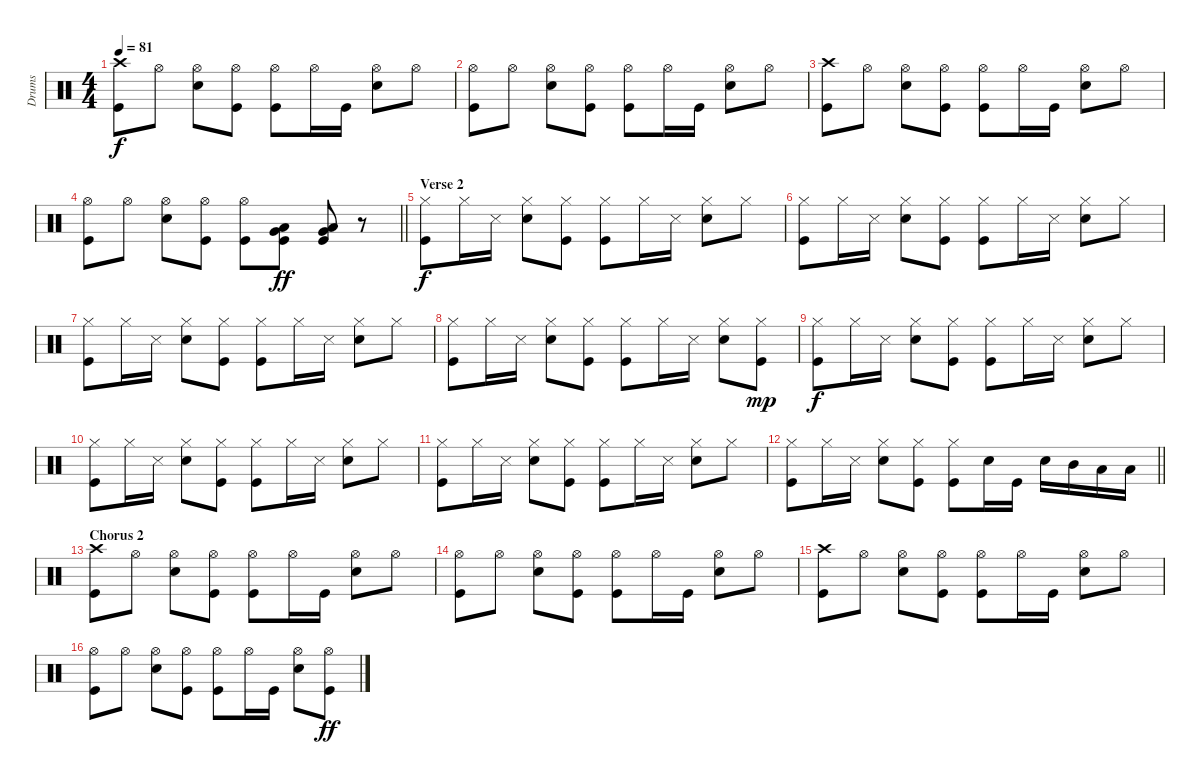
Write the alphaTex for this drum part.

\track ("Drums" "Drums") {instrument percussion}
\staff {score}
\articulation defaults
\ts (4 4)
\tempo 81
\clef neutral
\ks c
("Crash high (hit)" "Kick (hit)").8{dy f} "Hi-Hat (open)".8 ("Hi-Hat (open)" "Snare (hit) 2").8 ("Hi-Hat (open)" "Kick (hit)").8 ("Hi-Hat (open)" "Kick (hit)").8 "Hi-Hat (open)".16 "Kick (hit)".16 ("Hi-Hat (open)" "Snare (hit) 2").8 "Hi-Hat (open)".8 |
("Hi-Hat (open)" "Kick (hit)").8 "Hi-Hat (open)".8 ("Hi-Hat (open)" "Snare (hit) 2").8 ("Hi-Hat (open)" "Kick (hit)").8 ("Hi-Hat (open)" "Kick (hit)").8 "Hi-Hat (open)".16 "Kick (hit)".16 ("Hi-Hat (open)" "Snare (hit) 2").8 "Hi-Hat (open)".8 |
("Crash high (hit)" "Kick (hit)").8 "Hi-Hat (open)".8 ("Hi-Hat (open)" "Snare (hit) 2").8 ("Hi-Hat (open)" "Kick (hit)").8 ("Hi-Hat (open)" "Kick (hit)").8 "Hi-Hat (open)".16 "Kick (hit)".16 ("Hi-Hat (open)" "Snare (hit) 2").8 "Hi-Hat (open)".8 |
\barLineRight lightlight
("Hi-Hat (open)" "Kick (hit)").8 "Hi-Hat (open)".8 ("Hi-Hat (open)" "Snare (hit) 2").8 ("Hi-Hat (open)" "Kick (hit)").8 ("Hi-Hat (open)" "Kick (hit)").8 ("Low Tom (hit)" "Very Low Tom (hit)" "Kick (hit)").8{dy ff} ("Low Tom (hit)" "Very Low Tom (hit)" "Kick (hit)").8 r.8 |
\section ("" "Verse 2")
("Hi-Hat (closed)" "Kick (hit)").8{dy f} "Hi-Hat (closed)".16 "Snare (side stick) 3".16 ("Hi-Hat (closed)" "Snare (hit) 2").8 ("Hi-Hat (closed)" "Kick (hit)").8 ("Hi-Hat (closed)" "Kick (hit)").8 "Hi-Hat (closed)".16 "Snare (side stick) 3".16 ("Hi-Hat (closed)" "Snare (hit) 2").8 "Hi-Hat (closed)".8 |
("Hi-Hat (closed)" "Kick (hit)").8 "Hi-Hat (closed)".16 "Snare (side stick) 3".16 ("Hi-Hat (closed)" "Snare (hit) 2").8 ("Hi-Hat (closed)" "Kick (hit)").8 ("Hi-Hat (closed)" "Kick (hit)").8 "Hi-Hat (closed)".16 "Snare (side stick) 3".16 ("Hi-Hat (closed)" "Snare (hit) 2").8 "Hi-Hat (closed)".8 |
("Hi-Hat (closed)" "Kick (hit)").8 "Hi-Hat (closed)".16 "Snare (side stick) 3".16 ("Hi-Hat (closed)" "Snare (hit) 2").8 ("Hi-Hat (closed)" "Kick (hit)").8 ("Hi-Hat (closed)" "Kick (hit)").8 "Hi-Hat (closed)".16 "Snare (side stick) 3".16 ("Hi-Hat (closed)" "Snare (hit) 2").8 "Hi-Hat (closed)".8 |
("Hi-Hat (closed)" "Kick (hit)").8 "Hi-Hat (closed)".16 "Snare (side stick) 3".16 ("Hi-Hat (closed)" "Snare (hit) 2").8 ("Hi-Hat (closed)" "Kick (hit)").8 ("Hi-Hat (closed)" "Kick (hit)").8 "Hi-Hat (closed)".16 "Snare (side stick) 3".16 ("Hi-Hat (closed)" "Snare (hit) 2").8 ("Hi-Hat (closed)" "Kick (hit)").8{dy mp} |
("Hi-Hat (closed)" "Kick (hit)").8{dy f} "Hi-Hat (closed)".16 "Snare (side stick) 3".16 ("Hi-Hat (closed)" "Snare (hit) 2").8 ("Hi-Hat (closed)" "Kick (hit)").8 ("Hi-Hat (closed)" "Kick (hit)").8 "Hi-Hat (closed)".16 "Snare (side stick) 3".16 ("Hi-Hat (closed)" "Snare (hit) 2").8 "Hi-Hat (closed)".8 |
("Hi-Hat (closed)" "Kick (hit)").8 "Hi-Hat (closed)".16 "Snare (side stick) 3".16 ("Hi-Hat (closed)" "Snare (hit) 2").8 ("Hi-Hat (closed)" "Kick (hit)").8 ("Hi-Hat (closed)" "Kick (hit)").8 "Hi-Hat (closed)".16 "Snare (side stick) 3".16 ("Hi-Hat (closed)" "Snare (hit) 2").8 "Hi-Hat (closed)".8 |
("Hi-Hat (closed)" "Kick (hit)").8 "Hi-Hat (closed)".16 "Snare (side stick) 3".16 ("Hi-Hat (closed)" "Snare (hit) 2").8 ("Hi-Hat (closed)" "Kick (hit)").8 ("Hi-Hat (closed)" "Kick (hit)").8 "Hi-Hat (closed)".16 "Snare (side stick) 3".16 ("Hi-Hat (closed)" "Snare (hit) 2").8 "Hi-Hat (closed)".8 |
\barLineRight lightlight
("Hi-Hat (closed)" "Kick (hit)").8 "Hi-Hat (closed)".16 "Snare (side stick) 3".16 ("Hi-Hat (closed)" "Snare (hit) 2").8 ("Hi-Hat (closed)" "Kick (hit)").8 ("Hi-Hat (closed)" "Kick (hit)").8 "Snare (hit) 2".16 "Kick (hit)".16 "Snare (hit) 2".16 "Mid Tom (hit)".16 "Low Tom (hit)".16 "Low Tom (hit)".16 |
\section ("" "Chorus 2")
("Crash high (hit)" "Kick (hit)").8 "Hi-Hat (open)".8 ("Hi-Hat (open)" "Snare (hit) 2").8 ("Hi-Hat (open)" "Kick (hit)").8 ("Hi-Hat (open)" "Kick (hit)").8 "Hi-Hat (open)".16 "Kick (hit)".16 ("Hi-Hat (open)" "Snare (hit) 2").8 "Hi-Hat (open)".8 |
("Hi-Hat (open)" "Kick (hit)").8 "Hi-Hat (open)".8 ("Hi-Hat (open)" "Snare (hit) 2").8 ("Hi-Hat (open)" "Kick (hit)").8 ("Hi-Hat (open)" "Kick (hit)").8 "Hi-Hat (open)".16 "Kick (hit)".16 ("Hi-Hat (open)" "Snare (hit) 2").8 "Hi-Hat (open)".8 |
("Crash high (hit)" "Kick (hit)").8 "Hi-Hat (open)".8 ("Hi-Hat (open)" "Snare (hit) 2").8 ("Hi-Hat (open)" "Kick (hit)").8 ("Hi-Hat (open)" "Kick (hit)").8 "Hi-Hat (open)".16 "Kick (hit)".16 ("Hi-Hat (open)" "Snare (hit) 2").8 "Hi-Hat (open)".8 |
("Hi-Hat (open)" "Kick (hit)").8 "Hi-Hat (open)".8 ("Hi-Hat (open)" "Snare (hit) 2").8 ("Hi-Hat (open)" "Kick (hit)").8 ("Hi-Hat (open)" "Kick (hit)").8 "Hi-Hat (open)".16 "Kick (hit)".16 ("Hi-Hat (open)" "Snare (hit) 2").8 ("Hi-Hat (open)" "Kick (hit)").8{dy ff}
